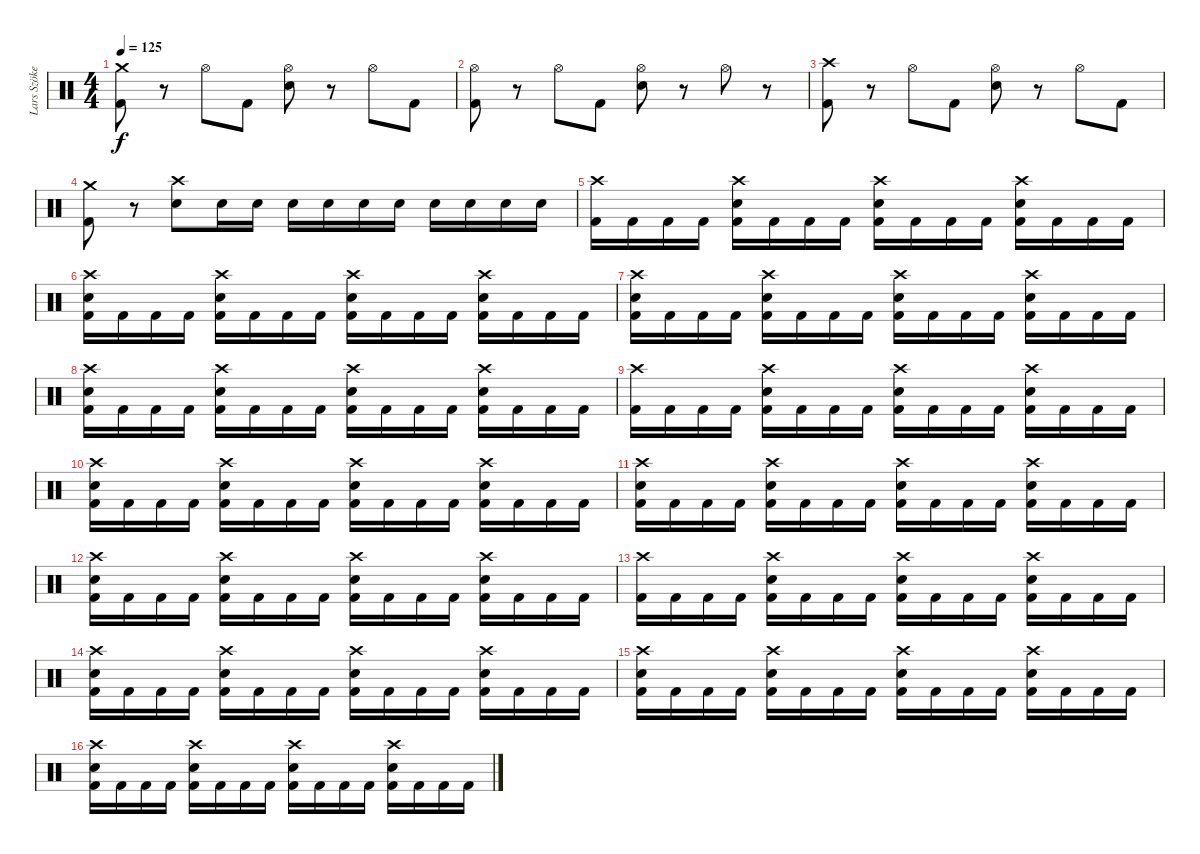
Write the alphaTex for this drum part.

\track ("Lars Szöke" "Lars Szöke") {instrument percussion}
\staff {score}
\articulation defaults
\ts (4 4)
\tempo 125
\clef neutral
\ks c
("Crash medium (hit)" "Kick (hit) 2").8{dy f} r.8 "Hi-Hat (open)".8 "Kick (hit) 2".8 ("Hi-Hat (open)" "Snare (hit) 2").8 r.8 "Hi-Hat (open)".8 "Kick (hit) 2".8 |
("Hi-Hat (open)" "Kick (hit) 2").8 r.8 "Hi-Hat (open)".8 "Kick (hit) 2".8 ("Hi-Hat (open)" "Snare (hit) 2").8 r.8 "Hi-Hat (open)".8 r.8 |
("Crash high (hit)" "Kick (hit) 2").8 r.8 "Hi-Hat (open)".8 "Kick (hit) 2".8 ("Hi-Hat (open)" "Snare (hit) 2").8 r.8 "Hi-Hat (open)".8 "Kick (hit) 2".8 |
("Crash medium (hit)" "Kick (hit) 2").8 r.8 ("Crash high (hit)" "Snare (hit) 2").8 "Snare (hit) 2".16 "Snare (hit) 2".16 "Snare (hit) 2".16 "Snare (hit) 2".16 "Snare (hit) 2".16 "Snare (hit) 2".16 "Snare (hit) 2".16 "Snare (hit) 2".16 "Snare (hit) 2".16 "Snare (hit) 2".16 |
("Crash high (hit)" "Kick (hit) 2").16 "Kick (hit) 2".16 "Kick (hit) 2".16 "Kick (hit) 2".16 ("Crash high (hit)" "Snare (hit) 2" "Kick (hit) 2").16 "Kick (hit) 2".16 "Kick (hit) 2".16 "Kick (hit) 2".16 ("Crash high (hit)" "Snare (hit) 2" "Kick (hit) 2").16 "Kick (hit) 2".16 "Kick (hit) 2".16 "Kick (hit) 2".16 ("Crash high (hit)" "Snare (hit) 2" "Kick (hit) 2").16 "Kick (hit) 2".16 "Kick (hit) 2".16 "Kick (hit) 2".16 |
("Crash high (hit)" "Snare (hit) 2" "Kick (hit) 2").16 "Kick (hit) 2".16 "Kick (hit) 2".16 "Kick (hit) 2".16 ("Crash high (hit)" "Snare (hit) 2" "Kick (hit) 2").16 "Kick (hit) 2".16 "Kick (hit) 2".16 "Kick (hit) 2".16 ("Crash high (hit)" "Snare (hit) 2" "Kick (hit) 2").16 "Kick (hit) 2".16 "Kick (hit) 2".16 "Kick (hit) 2".16 ("Crash high (hit)" "Snare (hit) 2" "Kick (hit) 2").16 "Kick (hit) 2".16 "Kick (hit) 2".16 "Kick (hit) 2".16 |
("Crash high (hit)" "Snare (hit) 2" "Kick (hit) 2").16 "Kick (hit) 2".16 "Kick (hit) 2".16 "Kick (hit) 2".16 ("Crash high (hit)" "Snare (hit) 2" "Kick (hit) 2").16 "Kick (hit) 2".16 "Kick (hit) 2".16 "Kick (hit) 2".16 ("Crash high (hit)" "Snare (hit) 2" "Kick (hit) 2").16 "Kick (hit) 2".16 "Kick (hit) 2".16 "Kick (hit) 2".16 ("Crash high (hit)" "Snare (hit) 2" "Kick (hit) 2").16 "Kick (hit) 2".16 "Kick (hit) 2".16 "Kick (hit) 2".16 |
("Crash high (hit)" "Snare (hit) 2" "Kick (hit) 2").16 "Kick (hit) 2".16 "Kick (hit) 2".16 "Kick (hit) 2".16 ("Crash high (hit)" "Snare (hit) 2" "Kick (hit) 2").16 "Kick (hit) 2".16 "Kick (hit) 2".16 "Kick (hit) 2".16 ("Crash high (hit)" "Snare (hit) 2" "Kick (hit) 2").16 "Kick (hit) 2".16 "Kick (hit) 2".16 "Kick (hit) 2".16 ("Crash high (hit)" "Snare (hit) 2" "Kick (hit) 2").16 "Kick (hit) 2".16 "Kick (hit) 2".16 "Kick (hit) 2".16 |
("Crash high (hit)" "Kick (hit) 2").16 "Kick (hit) 2".16 "Kick (hit) 2".16 "Kick (hit) 2".16 ("Crash high (hit)" "Snare (hit) 2" "Kick (hit) 2").16 "Kick (hit) 2".16 "Kick (hit) 2".16 "Kick (hit) 2".16 ("Crash high (hit)" "Snare (hit) 2" "Kick (hit) 2").16 "Kick (hit) 2".16 "Kick (hit) 2".16 "Kick (hit) 2".16 ("Crash high (hit)" "Snare (hit) 2" "Kick (hit) 2").16 "Kick (hit) 2".16 "Kick (hit) 2".16 "Kick (hit) 2".16 |
("Crash high (hit)" "Snare (hit) 2" "Kick (hit) 2").16 "Kick (hit) 2".16 "Kick (hit) 2".16 "Kick (hit) 2".16 ("Crash high (hit)" "Snare (hit) 2" "Kick (hit) 2").16 "Kick (hit) 2".16 "Kick (hit) 2".16 "Kick (hit) 2".16 ("Crash high (hit)" "Snare (hit) 2" "Kick (hit) 2").16 "Kick (hit) 2".16 "Kick (hit) 2".16 "Kick (hit) 2".16 ("Crash high (hit)" "Snare (hit) 2" "Kick (hit) 2").16 "Kick (hit) 2".16 "Kick (hit) 2".16 "Kick (hit) 2".16 |
("Crash high (hit)" "Snare (hit) 2" "Kick (hit) 2").16 "Kick (hit) 2".16 "Kick (hit) 2".16 "Kick (hit) 2".16 ("Crash high (hit)" "Snare (hit) 2" "Kick (hit) 2").16 "Kick (hit) 2".16 "Kick (hit) 2".16 "Kick (hit) 2".16 ("Crash high (hit)" "Snare (hit) 2" "Kick (hit) 2").16 "Kick (hit) 2".16 "Kick (hit) 2".16 "Kick (hit) 2".16 ("Crash high (hit)" "Snare (hit) 2" "Kick (hit) 2").16 "Kick (hit) 2".16 "Kick (hit) 2".16 "Kick (hit) 2".16 |
("Crash high (hit)" "Snare (hit) 2" "Kick (hit) 2").16 "Kick (hit) 2".16 "Kick (hit) 2".16 "Kick (hit) 2".16 ("Crash high (hit)" "Snare (hit) 2" "Kick (hit) 2").16 "Kick (hit) 2".16 "Kick (hit) 2".16 "Kick (hit) 2".16 ("Crash high (hit)" "Snare (hit) 2" "Kick (hit) 2").16 "Kick (hit) 2".16 "Kick (hit) 2".16 "Kick (hit) 2".16 ("Crash high (hit)" "Snare (hit) 2" "Kick (hit) 2").16 "Kick (hit) 2".16 "Kick (hit) 2".16 "Kick (hit) 2".16 |
("Crash high (hit)" "Kick (hit) 2").16 "Kick (hit) 2".16 "Kick (hit) 2".16 "Kick (hit) 2".16 ("Crash high (hit)" "Snare (hit) 2" "Kick (hit) 2").16 "Kick (hit) 2".16 "Kick (hit) 2".16 "Kick (hit) 2".16 ("Crash high (hit)" "Snare (hit) 2" "Kick (hit) 2").16 "Kick (hit) 2".16 "Kick (hit) 2".16 "Kick (hit) 2".16 ("Crash high (hit)" "Snare (hit) 2" "Kick (hit) 2").16 "Kick (hit) 2".16 "Kick (hit) 2".16 "Kick (hit) 2".16 |
("Crash high (hit)" "Snare (hit) 2" "Kick (hit) 2").16 "Kick (hit) 2".16 "Kick (hit) 2".16 "Kick (hit) 2".16 ("Crash high (hit)" "Snare (hit) 2" "Kick (hit) 2").16 "Kick (hit) 2".16 "Kick (hit) 2".16 "Kick (hit) 2".16 ("Crash high (hit)" "Snare (hit) 2" "Kick (hit) 2").16 "Kick (hit) 2".16 "Kick (hit) 2".16 "Kick (hit) 2".16 ("Crash high (hit)" "Snare (hit) 2" "Kick (hit) 2").16 "Kick (hit) 2".16 "Kick (hit) 2".16 "Kick (hit) 2".16 |
("Crash high (hit)" "Snare (hit) 2" "Kick (hit) 2").16 "Kick (hit) 2".16 "Kick (hit) 2".16 "Kick (hit) 2".16 ("Crash high (hit)" "Snare (hit) 2" "Kick (hit) 2").16 "Kick (hit) 2".16 "Kick (hit) 2".16 "Kick (hit) 2".16 ("Crash high (hit)" "Snare (hit) 2" "Kick (hit) 2").16 "Kick (hit) 2".16 "Kick (hit) 2".16 "Kick (hit) 2".16 ("Crash high (hit)" "Snare (hit) 2" "Kick (hit) 2").16 "Kick (hit) 2".16 "Kick (hit) 2".16 "Kick (hit) 2".16 |
("Crash high (hit)" "Snare (hit) 2" "Kick (hit) 2").16 "Kick (hit) 2".16 "Kick (hit) 2".16 "Kick (hit) 2".16 ("Crash high (hit)" "Snare (hit) 2" "Kick (hit) 2").16 "Kick (hit) 2".16 "Kick (hit) 2".16 "Kick (hit) 2".16 ("Crash high (hit)" "Snare (hit) 2" "Kick (hit) 2").16 "Kick (hit) 2".16 "Kick (hit) 2".16 "Kick (hit) 2".16 ("Crash high (hit)" "Snare (hit) 2" "Kick (hit) 2").16 "Kick (hit) 2".16 "Kick (hit) 2".16 "Kick (hit) 2".16
